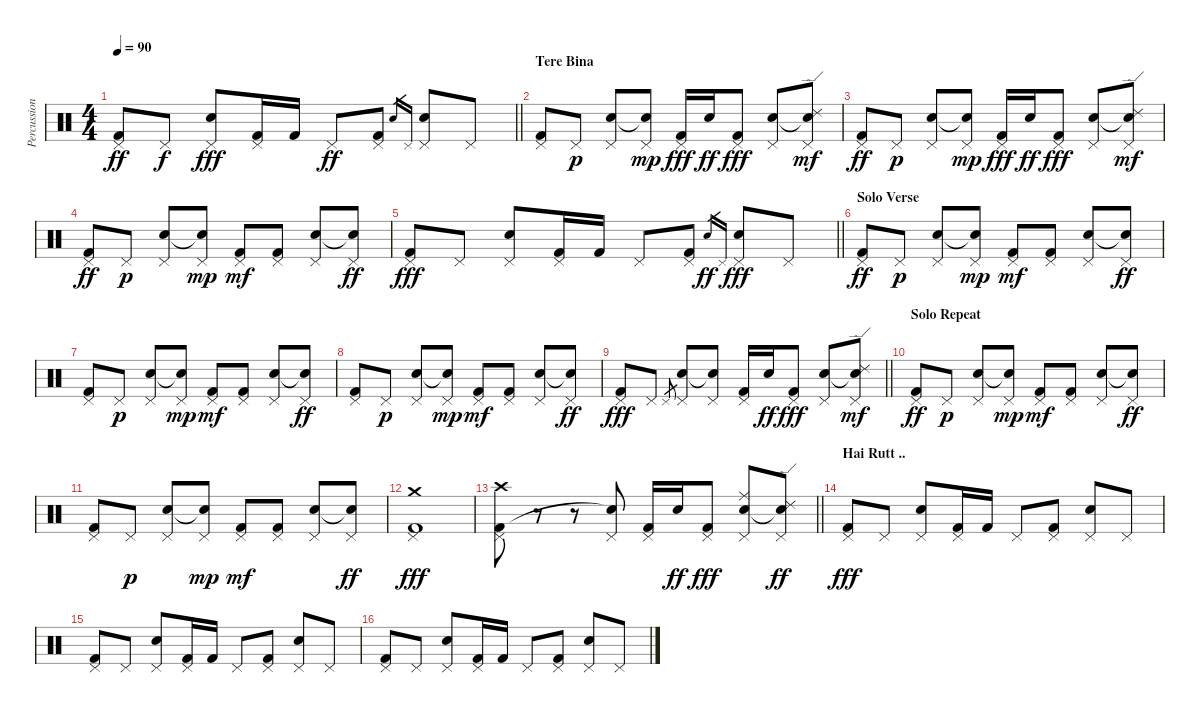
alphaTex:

\track ("Percussion" "Percussion") {instrument percussion}
\staff {score}
\articulation defaults
\ts (4 4)
\tempo 90
\clef neutral
\barLineRight lightlight
\ks c
("Kick (hit) 2" "Pedal Hi-Hat (hit)").8{dy ff} "Pedal Hi-Hat (hit)".8{dy f} ("Electric Snare (hit)" "Pedal Hi-Hat (hit)").8{dy fff} ("Kick (hit) 2" "Pedal Hi-Hat (hit)").16 "Kick (hit) 2".16 "Pedal Hi-Hat (hit)".8{dy ff} ("Kick (hit) 2" "Pedal Hi-Hat (hit)").8 "Electric Snare (hit)"{sl}.16{gr} "Pedal Hi-Hat (hit)".16{gr} ("Electric Snare (hit)" "Pedal Hi-Hat (hit)").8 "Pedal Hi-Hat (hit)".8 |
\section ("" "Tere Bina")
("Kick (hit) 2" "Pedal Hi-Hat (hit)").8 "Pedal Hi-Hat (hit)".8{dy p} ("Electric Snare (hit)" "Pedal Hi-Hat (hit)").8 ("Snare (hit)"{t} "Pedal Hi-Hat (hit)").8{dy mp} ("Kick (hit) 2" "Pedal Hi-Hat (hit)").16{dy fff} "Electric Snare (hit)".16{dy ff} ("Kick (hit) 2" "Pedal Hi-Hat (hit)").8{dy fff} ("Electric Snare (hit)" "Pedal Hi-Hat (hit)").8 ("Snare (hit)"{t} "Pedal Hi-Hat (hit)" "Ride (edge) 2").8{dy mf} |
("Kick (hit) 2" "Pedal Hi-Hat (hit)").8{dy ff} "Pedal Hi-Hat (hit)".8{dy p} ("Electric Snare (hit)" "Pedal Hi-Hat (hit)").8 ("Snare (hit)"{t} "Pedal Hi-Hat (hit)").8{dy mp} ("Kick (hit) 2" "Pedal Hi-Hat (hit)").16{dy fff} "Electric Snare (hit)".16{dy ff} ("Kick (hit) 2" "Pedal Hi-Hat (hit)").8{dy fff} ("Electric Snare (hit)" "Pedal Hi-Hat (hit)").8 ("Snare (hit)"{t} "Pedal Hi-Hat (hit)" "Ride (edge) 2").8{dy mf} |
("Kick (hit) 2" "Pedal Hi-Hat (hit)").8{dy ff} "Pedal Hi-Hat (hit)".8{dy p} ("Electric Snare (hit)" "Pedal Hi-Hat (hit)").8 ("Snare (hit)"{t} "Pedal Hi-Hat (hit)").8{dy mp} ("Kick (hit) 2" "Pedal Hi-Hat (hit)").8{dy mf} ("Kick (hit) 2" "Pedal Hi-Hat (hit)").8 ("Electric Snare (hit)" "Pedal Hi-Hat (hit)").8 ("Snare (hit)"{t} "Pedal Hi-Hat (hit)").8{dy ff} |
\barLineRight lightlight
("Kick (hit) 2" "Pedal Hi-Hat (hit)").8{dy fff} "Pedal Hi-Hat (hit)".8 ("Electric Snare (hit)" "Pedal Hi-Hat (hit)").8 ("Kick (hit) 2" "Pedal Hi-Hat (hit)").16 "Kick (hit) 2".16 "Pedal Hi-Hat (hit)".8 ("Kick (hit) 2" "Pedal Hi-Hat (hit)").8 "Electric Snare (hit)"{sl}.16{gr dy ff} "Pedal Hi-Hat (hit)".16{gr} ("Electric Snare (hit)" "Pedal Hi-Hat (hit)").8{dy fff} "Pedal Hi-Hat (hit)".8 |
\section ("" "Solo Verse")
("Kick (hit) 2" "Pedal Hi-Hat (hit)").8{dy ff} "Pedal Hi-Hat (hit)".8{dy p} ("Electric Snare (hit)" "Pedal Hi-Hat (hit)").8 ("Snare (hit)"{t} "Pedal Hi-Hat (hit)").8{dy mp} ("Kick (hit) 2" "Pedal Hi-Hat (hit)").8{dy mf} ("Kick (hit) 2" "Pedal Hi-Hat (hit)").8 ("Electric Snare (hit)" "Pedal Hi-Hat (hit)").8 ("Snare (hit)"{t} "Pedal Hi-Hat (hit)").8{dy ff} |
("Kick (hit) 2" "Pedal Hi-Hat (hit)").8 "Pedal Hi-Hat (hit)".8{dy p} ("Electric Snare (hit)" "Pedal Hi-Hat (hit)").8 ("Snare (hit)"{t} "Pedal Hi-Hat (hit)").8{dy mp} ("Kick (hit) 2" "Pedal Hi-Hat (hit)").8{dy mf} ("Kick (hit) 2" "Pedal Hi-Hat (hit)").8 ("Electric Snare (hit)" "Pedal Hi-Hat (hit)").8 ("Snare (hit)"{t} "Pedal Hi-Hat (hit)").8{dy ff} |
("Kick (hit) 2" "Pedal Hi-Hat (hit)").8 "Pedal Hi-Hat (hit)".8{dy p} ("Electric Snare (hit)" "Pedal Hi-Hat (hit)").8 ("Snare (hit)"{t} "Pedal Hi-Hat (hit)").8{dy mp} ("Kick (hit) 2" "Pedal Hi-Hat (hit)").8{dy mf} ("Kick (hit) 2" "Pedal Hi-Hat (hit)").8 ("Electric Snare (hit)" "Pedal Hi-Hat (hit)").8 ("Snare (hit)"{t} "Pedal Hi-Hat (hit)").8{dy ff} |
\barLineRight lightlight
("Kick (hit) 2" "Pedal Hi-Hat (hit)").8{dy fff} "Pedal Hi-Hat (hit)".8 "Pedal Hi-Hat (hit)".8{gr} ("Electric Snare (hit)" "Pedal Hi-Hat (hit)").8 ("Snare (hit)"{t} "Pedal Hi-Hat (hit)").8 ("Kick (hit) 2" "Pedal Hi-Hat (hit)").16 "Electric Snare (hit)".16{dy ff} ("Kick (hit) 2" "Pedal Hi-Hat (hit)").8{dy fff} ("Electric Snare (hit)" "Pedal Hi-Hat (hit)").8 ("Snare (hit)"{t} "Pedal Hi-Hat (hit)" "Ride (edge) 2").8{dy mf} |
\section ("" "Solo Repeat")
("Kick (hit) 2" "Pedal Hi-Hat (hit)").8{dy ff} "Pedal Hi-Hat (hit)".8{dy p} ("Electric Snare (hit)" "Pedal Hi-Hat (hit)").8 ("Snare (hit)"{t} "Pedal Hi-Hat (hit)").8{dy mp} ("Kick (hit) 2" "Pedal Hi-Hat (hit)").8{dy mf} ("Kick (hit) 2" "Pedal Hi-Hat (hit)").8 ("Electric Snare (hit)" "Pedal Hi-Hat (hit)").8 ("Snare (hit)"{t} "Pedal Hi-Hat (hit)").8{dy ff} |
("Kick (hit) 2" "Pedal Hi-Hat (hit)").8 "Pedal Hi-Hat (hit)".8{dy p} ("Electric Snare (hit)" "Pedal Hi-Hat (hit)").8 ("Snare (hit)"{t} "Pedal Hi-Hat (hit)").8{dy mp} ("Kick (hit) 2" "Pedal Hi-Hat (hit)").8{dy mf} ("Kick (hit) 2" "Pedal Hi-Hat (hit)").8 ("Electric Snare (hit)" "Pedal Hi-Hat (hit)").8 ("Snare (hit)"{t} "Pedal Hi-Hat (hit)").8{dy ff} |
("Kick (hit) 2" "Pedal Hi-Hat (hit)" "Crash medium (hit)").1{dy fff} |
\barLineRight lightlight
("Kick (hit) 2" "Pedal Hi-Hat (hit)" "Crash high (hit)").8 r.8 r.8 ("Snare (hit)"{t} "Pedal Hi-Hat (hit)").8 ("Kick (hit) 2" "Pedal Hi-Hat (hit)").16 "Electric Snare (hit)".16{dy ff} ("Kick (hit) 2" "Pedal Hi-Hat (hit)").8{dy fff} ("Electric Snare (hit)" "Pedal Hi-Hat (hit)" "Ride (middle)").8 ("Snare (hit)"{t} "Pedal Hi-Hat (hit)" "Ride (edge) 2").8{dy ff} |
\section ("" "Hai Rutt ..")
("Kick (hit) 2" "Pedal Hi-Hat (hit)").8{dy fff} "Pedal Hi-Hat (hit)".8 ("Electric Snare (hit)" "Pedal Hi-Hat (hit)").8 ("Kick (hit) 2" "Pedal Hi-Hat (hit)").16 "Kick (hit) 2".16 "Pedal Hi-Hat (hit)".8 ("Kick (hit) 2" "Pedal Hi-Hat (hit)").8 ("Electric Snare (hit)" "Pedal Hi-Hat (hit)").8 "Pedal Hi-Hat (hit)".8 |
("Kick (hit) 2" "Pedal Hi-Hat (hit)").8 "Pedal Hi-Hat (hit)".8 ("Electric Snare (hit)" "Pedal Hi-Hat (hit)").8 ("Kick (hit) 2" "Pedal Hi-Hat (hit)").16 "Kick (hit) 2".16 "Pedal Hi-Hat (hit)".8 ("Kick (hit) 2" "Pedal Hi-Hat (hit)").8 ("Electric Snare (hit)" "Pedal Hi-Hat (hit)").8 "Pedal Hi-Hat (hit)".8 |
("Kick (hit) 2" "Pedal Hi-Hat (hit)").8 "Pedal Hi-Hat (hit)".8 ("Electric Snare (hit)" "Pedal Hi-Hat (hit)").8 ("Kick (hit) 2" "Pedal Hi-Hat (hit)").16 "Kick (hit) 2".16 "Pedal Hi-Hat (hit)".8 ("Kick (hit) 2" "Pedal Hi-Hat (hit)").8 ("Electric Snare (hit)" "Pedal Hi-Hat (hit)").8 "Pedal Hi-Hat (hit)".8
